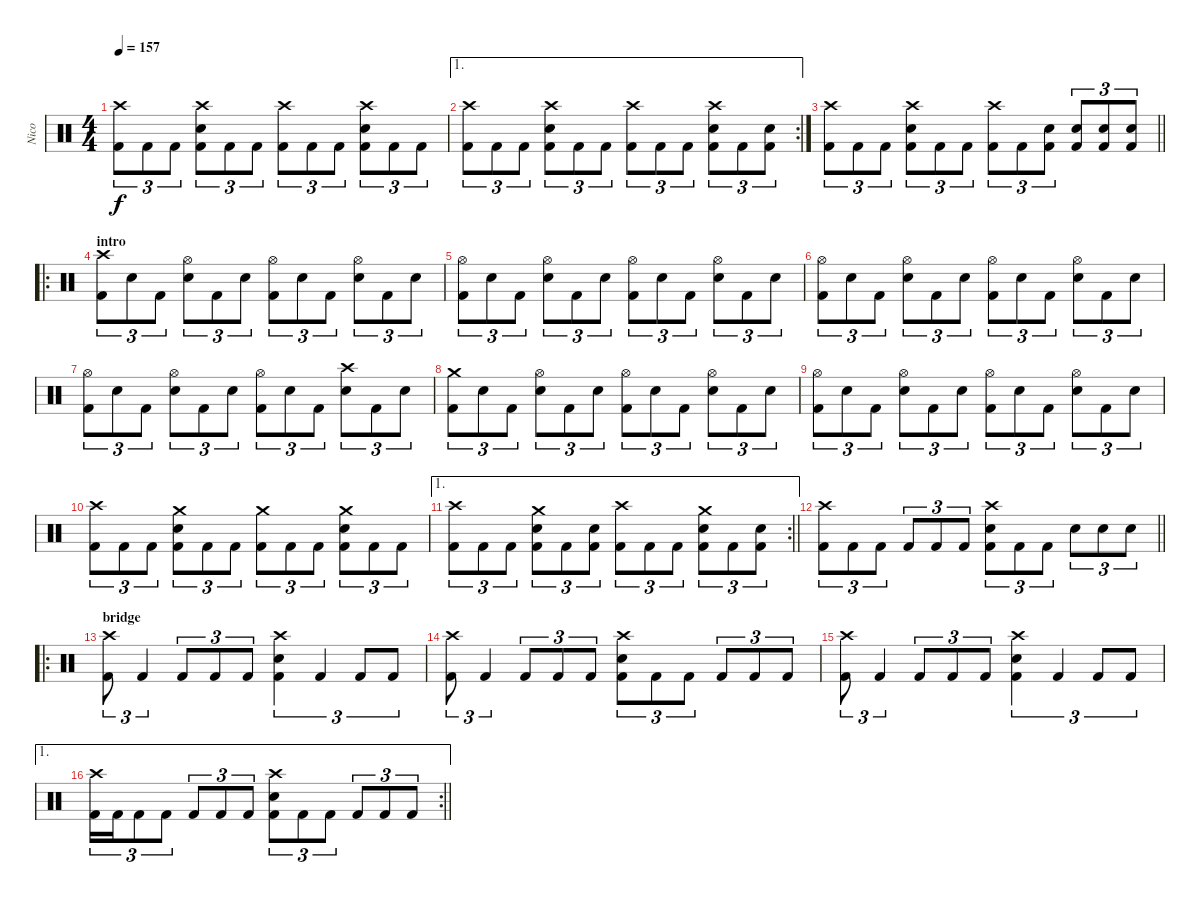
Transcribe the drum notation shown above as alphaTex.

\track ("Nico" "Nico") {instrument percussion}
\staff {score}
\articulation defaults
\ts (4 4)
\tempo 157
\clef neutral
\ks c
("Crash high (hit)" "Kick (hit) 2").8{tu (3 2) dy f} "Kick (hit) 2".8{tu (3 2)} "Kick (hit) 2".8{tu (3 2)} ("Crash high (hit)" "Electric Snare (hit)" "Kick (hit) 2").8{tu (3 2)} "Kick (hit) 2".8{tu (3 2)} "Kick (hit) 2".8{tu (3 2)} ("Crash high (hit)" "Kick (hit) 2").8{tu (3 2)} "Kick (hit) 2".8{tu (3 2)} "Kick (hit) 2".8{tu (3 2)} ("Crash high (hit)" "Electric Snare (hit)" "Kick (hit) 2").8{tu (3 2)} "Kick (hit) 2".8{tu (3 2)} "Kick (hit) 2".8{tu (3 2)} |
\ae 1
\rc 2
("Crash high (hit)" "Kick (hit) 2").8{tu (3 2)} "Kick (hit) 2".8{tu (3 2)} "Kick (hit) 2".8{tu (3 2)} ("Crash high (hit)" "Electric Snare (hit)" "Kick (hit) 2").8{tu (3 2)} "Kick (hit) 2".8{tu (3 2)} "Kick (hit) 2".8{tu (3 2)} ("Crash high (hit)" "Kick (hit) 2").8{tu (3 2)} "Kick (hit) 2".8{tu (3 2)} "Kick (hit) 2".8{tu (3 2)} ("Crash high (hit)" "Electric Snare (hit)" "Kick (hit) 2").8{tu (3 2)} "Kick (hit) 2".8{tu (3 2)} ("Electric Snare (hit)" "Kick (hit) 2").8{tu (3 2)} |
\barLineRight lightlight
("Crash high (hit)" "Kick (hit) 2").8{tu (3 2)} "Kick (hit) 2".8{tu (3 2)} "Kick (hit) 2".8{tu (3 2)} ("Crash high (hit)" "Electric Snare (hit)" "Kick (hit) 2").8{tu (3 2)} "Kick (hit) 2".8{tu (3 2)} "Kick (hit) 2".8{tu (3 2)} ("Crash high (hit)" "Kick (hit) 2").8{tu (3 2)} "Kick (hit) 2".8{tu (3 2)} ("Electric Snare (hit)" "Kick (hit) 2").8{tu (3 2)} ("Electric Snare (hit)" "Kick (hit) 2").8{tu (3 2)} ("Electric Snare (hit)" "Kick (hit) 2").8{tu (3 2)} ("Electric Snare (hit)" "Kick (hit) 2").8{tu (3 2)} |
\ro
\section ("" "intro")
("Crash high (hit)" "Kick (hit) 2").8{tu (3 2)} "Electric Snare (hit)".8{tu (3 2)} "Kick (hit) 2".8{tu (3 2)} ("Hi-Hat (open)" "Electric Snare (hit)").8{tu (3 2)} "Kick (hit) 2".8{tu (3 2)} "Electric Snare (hit)".8{tu (3 2)} ("Hi-Hat (open)" "Kick (hit) 2").8{tu (3 2)} "Electric Snare (hit)".8{tu (3 2)} "Kick (hit) 2".8{tu (3 2)} ("Hi-Hat (open)" "Electric Snare (hit)").8{tu (3 2)} "Kick (hit) 2".8{tu (3 2)} "Electric Snare (hit)".8{tu (3 2)} |
("Hi-Hat (open)" "Kick (hit) 2").8{tu (3 2)} "Electric Snare (hit)".8{tu (3 2)} "Kick (hit) 2".8{tu (3 2)} ("Hi-Hat (open)" "Electric Snare (hit)").8{tu (3 2)} "Kick (hit) 2".8{tu (3 2)} "Electric Snare (hit)".8{tu (3 2)} ("Hi-Hat (open)" "Kick (hit) 2").8{tu (3 2)} "Electric Snare (hit)".8{tu (3 2)} "Kick (hit) 2".8{tu (3 2)} ("Hi-Hat (open)" "Electric Snare (hit)").8{tu (3 2)} "Kick (hit) 2".8{tu (3 2)} "Electric Snare (hit)".8{tu (3 2)} |
("Hi-Hat (open)" "Kick (hit) 2").8{tu (3 2)} "Electric Snare (hit)".8{tu (3 2)} "Kick (hit) 2".8{tu (3 2)} ("Hi-Hat (open)" "Electric Snare (hit)").8{tu (3 2)} "Kick (hit) 2".8{tu (3 2)} "Electric Snare (hit)".8{tu (3 2)} ("Hi-Hat (open)" "Kick (hit) 2").8{tu (3 2)} "Electric Snare (hit)".8{tu (3 2)} "Kick (hit) 2".8{tu (3 2)} ("Hi-Hat (open)" "Electric Snare (hit)").8{tu (3 2)} "Kick (hit) 2".8{tu (3 2)} "Electric Snare (hit)".8{tu (3 2)} |
("Hi-Hat (open)" "Kick (hit) 2").8{tu (3 2)} "Electric Snare (hit)".8{tu (3 2)} "Kick (hit) 2".8{tu (3 2)} ("Hi-Hat (open)" "Electric Snare (hit)").8{tu (3 2)} "Kick (hit) 2".8{tu (3 2)} "Electric Snare (hit)".8{tu (3 2)} ("Hi-Hat (open)" "Kick (hit) 2").8{tu (3 2)} "Electric Snare (hit)".8{tu (3 2)} "Kick (hit) 2".8{tu (3 2)} ("Crash high (hit)" "Electric Snare (hit)").8{tu (3 2)} "Kick (hit) 2".8{tu (3 2)} "Electric Snare (hit)".8{tu (3 2)} |
("Crash medium (hit)" "Kick (hit) 2").8{tu (3 2)} "Electric Snare (hit)".8{tu (3 2)} "Kick (hit) 2".8{tu (3 2)} ("Hi-Hat (open)" "Electric Snare (hit)").8{tu (3 2)} "Kick (hit) 2".8{tu (3 2)} "Electric Snare (hit)".8{tu (3 2)} ("Hi-Hat (open)" "Kick (hit) 2").8{tu (3 2)} "Electric Snare (hit)".8{tu (3 2)} "Kick (hit) 2".8{tu (3 2)} ("Hi-Hat (open)" "Electric Snare (hit)").8{tu (3 2)} "Kick (hit) 2".8{tu (3 2)} "Electric Snare (hit)".8{tu (3 2)} |
("Hi-Hat (open)" "Kick (hit) 2").8{tu (3 2)} "Electric Snare (hit)".8{tu (3 2)} "Kick (hit) 2".8{tu (3 2)} ("Hi-Hat (open)" "Electric Snare (hit)").8{tu (3 2)} "Kick (hit) 2".8{tu (3 2)} "Electric Snare (hit)".8{tu (3 2)} ("Hi-Hat (open)" "Kick (hit) 2").8{tu (3 2)} "Electric Snare (hit)".8{tu (3 2)} "Kick (hit) 2".8{tu (3 2)} ("Hi-Hat (open)" "Electric Snare (hit)").8{tu (3 2)} "Kick (hit) 2".8{tu (3 2)} "Electric Snare (hit)".8{tu (3 2)} |
("Crash high (hit)" "Kick (hit) 2").8{tu (3 2)} "Kick (hit) 2".8{tu (3 2)} "Kick (hit) 2".8{tu (3 2)} ("Crash medium (hit)" "Electric Snare (hit)" "Kick (hit) 2").8{tu (3 2)} "Kick (hit) 2".8{tu (3 2)} "Kick (hit) 2".8{tu (3 2)} ("Crash medium (hit)" "Kick (hit) 2").8{tu (3 2)} "Kick (hit) 2".8{tu (3 2)} "Kick (hit) 2".8{tu (3 2)} ("Crash medium (hit)" "Electric Snare (hit)" "Kick (hit) 2").8{tu (3 2)} "Kick (hit) 2".8{tu (3 2)} "Kick (hit) 2".8{tu (3 2)} |
\ae 1
\rc 2
\barLineRight lightlight
("Crash high (hit)" "Kick (hit) 2").8{tu (3 2)} "Kick (hit) 2".8{tu (3 2)} "Kick (hit) 2".8{tu (3 2)} ("Crash medium (hit)" "Electric Snare (hit)" "Kick (hit) 2").8{tu (3 2)} "Kick (hit) 2".8{tu (3 2)} ("Electric Snare (hit)" "Kick (hit) 2").8{tu (3 2)} ("Crash high (hit)" "Kick (hit) 2").8{tu (3 2)} "Kick (hit) 2".8{tu (3 2)} "Kick (hit) 2".8{tu (3 2)} ("Crash medium (hit)" "Electric Snare (hit)" "Kick (hit) 2").8{tu (3 2)} "Kick (hit) 2".8{tu (3 2)} ("Electric Snare (hit)" "Kick (hit) 2").8{tu (3 2)} |
\barLineRight lightlight
("Crash high (hit)" "Kick (hit) 2").8{tu (3 2)} "Kick (hit) 2".8{tu (3 2)} "Kick (hit) 2".8{tu (3 2)} "Kick (hit) 2".8{tu (3 2)} "Kick (hit) 2".8{tu (3 2)} "Kick (hit) 2".8{tu (3 2)} ("Crash high (hit)" "Electric Snare (hit)" "Kick (hit) 2").8{tu (3 2)} "Kick (hit) 2".8{tu (3 2)} "Kick (hit) 2".8{tu (3 2)} "Electric Snare (hit)".8{tu (3 2)} "Electric Snare (hit)".8{tu (3 2)} "Electric Snare (hit)".8{tu (3 2)} |
\ro
\section ("" "bridge")
("Crash high (hit)" "Kick (hit) 2").8{tu (3 2)} "Kick (hit) 2".4{tu (3 2)} "Kick (hit) 2".8{tu (3 2)} "Kick (hit) 2".8{tu (3 2)} "Kick (hit) 2".8{tu (3 2)} ("Crash high (hit)" "Electric Snare (hit)" "Kick (hit) 2").4{tu (3 2)} "Kick (hit) 2".4{tu (3 2)} "Kick (hit) 2".8{tu (3 2)} "Kick (hit) 2".8{tu (3 2)} |
("Crash high (hit)" "Kick (hit) 2").8{tu (3 2)} "Kick (hit) 2".4{tu (3 2)} "Kick (hit) 2".8{tu (3 2)} "Kick (hit) 2".8{tu (3 2)} "Kick (hit) 2".8{tu (3 2)} ("Crash high (hit)" "Electric Snare (hit)" "Kick (hit) 2").8{tu (3 2)} "Kick (hit) 2".8{tu (3 2)} "Kick (hit) 2".8{tu (3 2)} "Kick (hit) 2".8{tu (3 2)} "Kick (hit) 2".8{tu (3 2)} "Kick (hit) 2".8{tu (3 2)} |
("Crash high (hit)" "Kick (hit) 2").8{tu (3 2)} "Kick (hit) 2".4{tu (3 2)} "Kick (hit) 2".8{tu (3 2)} "Kick (hit) 2".8{tu (3 2)} "Kick (hit) 2".8{tu (3 2)} ("Crash high (hit)" "Electric Snare (hit)" "Kick (hit) 2").4{tu (3 2)} "Kick (hit) 2".4{tu (3 2)} "Kick (hit) 2".8{tu (3 2)} "Kick (hit) 2".8{tu (3 2)} |
\ae 1
\rc 2
\barLineRight lightlight
("Crash high (hit)" "Kick (hit) 2").16{tu (3 2)} "Kick (hit) 2".16{tu (3 2)} "Kick (hit) 2".8{tu (3 2)} "Kick (hit) 2".8{tu (3 2)} "Kick (hit) 2".8{tu (3 2)} "Kick (hit) 2".8{tu (3 2)} "Kick (hit) 2".8{tu (3 2)} ("Crash high (hit)" "Electric Snare (hit)" "Kick (hit) 2").8{tu (3 2)} "Kick (hit) 2".8{tu (3 2)} "Kick (hit) 2".8{tu (3 2)} "Kick (hit) 2".8{tu (3 2)} "Kick (hit) 2".8{tu (3 2)} "Kick (hit) 2".8{tu (3 2)}
